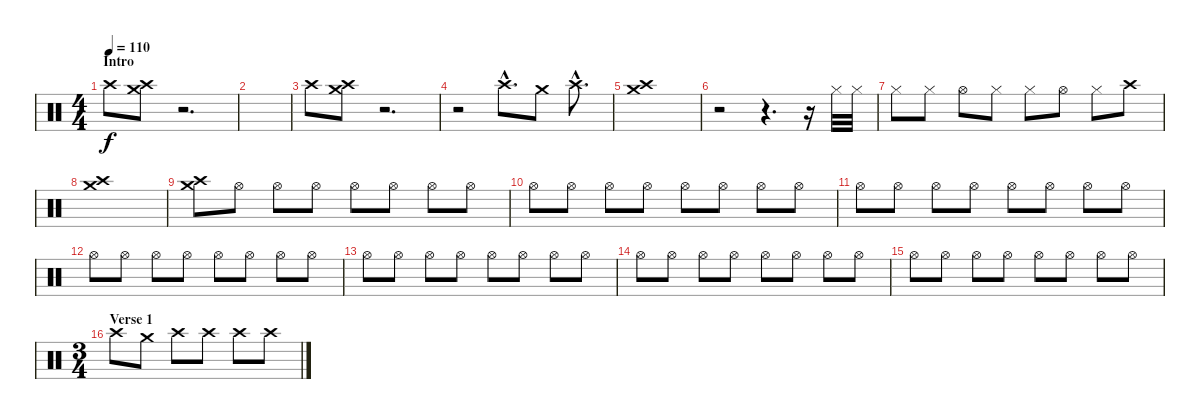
\track "" {instrument percussion}
\staff {score}
\articulation defaults
\ts (4 4)
\section ("" "Intro")
\tempo 110
\clef neutral
\ks c "Crash high (hit)".8{dy f}
("Crash medium (hit)" "Crash high (hit)").8 r.2{d} |
|
"Crash high (hit)".8 ("Crash medium (hit)" "Crash high (hit)").8 r.2{d} |
r.2 "Crash high (hit)"{hac}.8{d} "Crash medium (hit)".8 "Crash high (hit)"{hac}.8{d} |
("Crash medium (hit)" "Crash high (hit)").1 |
r.2 r.4{d} r.16 "Hi-Hat (closed)".32 "Hi-Hat (closed)".32 |
"Hi-Hat (closed)".8 "Hi-Hat (closed)".8 "Hi-Hat (open)".8 "Hi-Hat (closed)".8 "Hi-Hat (closed)".8 "Hi-Hat (open)".8 "Hi-Hat (closed)".8 "Crash high (hit)".8 |
("Crash medium (hit)" "Crash high (hit)").1 |
("Crash medium (hit)" "Crash high (hit)").8 "Hi-Hat (open)".8 "Hi-Hat (open)".8 "Hi-Hat (open)".8 "Hi-Hat (open)".8 "Hi-Hat (open)".8 "Hi-Hat (open)".8 "Hi-Hat (open)".8 |
"Hi-Hat (open)".8 "Hi-Hat (open)".8 "Hi-Hat (open)".8 "Hi-Hat (open)".8 "Hi-Hat (open)".8 "Hi-Hat (open)".8 "Hi-Hat (open)".8 "Hi-Hat (open)".8 |
"Hi-Hat (open)".8 "Hi-Hat (open)".8 "Hi-Hat (open)".8 "Hi-Hat (open)".8 "Hi-Hat (open)".8 "Hi-Hat (open)".8 "Hi-Hat (open)".8 "Hi-Hat (open)".8 |
"Hi-Hat (open)".8 "Hi-Hat (open)".8 "Hi-Hat (open)".8 "Hi-Hat (open)".8 "Hi-Hat (open)".8 "Hi-Hat (open)".8 "Hi-Hat (open)".8 "Hi-Hat (open)".8 |
"Hi-Hat (open)".8 "Hi-Hat (open)".8 "Hi-Hat (open)".8 "Hi-Hat (open)".8 "Hi-Hat (open)".8 "Hi-Hat (open)".8 "Hi-Hat (open)".8 "Hi-Hat (open)".8 |
"Hi-Hat (open)".8 "Hi-Hat (open)".8 "Hi-Hat (open)".8 "Hi-Hat (open)".8 "Hi-Hat (open)".8 "Hi-Hat (open)".8 "Hi-Hat (open)".8 "Hi-Hat (open)".8 |
"Hi-Hat (open)".8 "Hi-Hat (open)".8 "Hi-Hat (open)".8 "Hi-Hat (open)".8 "Hi-Hat (open)".8 "Hi-Hat (open)".8 "Hi-Hat (open)".8 "Hi-Hat (open)".8 |
\ts (3 4)
\section ("" "Verse 1")
"Crash high (hit)".8 "Crash medium (hit)".8 "Crash high (hit)".8 "Crash high (hit)".8 "Crash high (hit)".8 "Crash high (hit)".8
